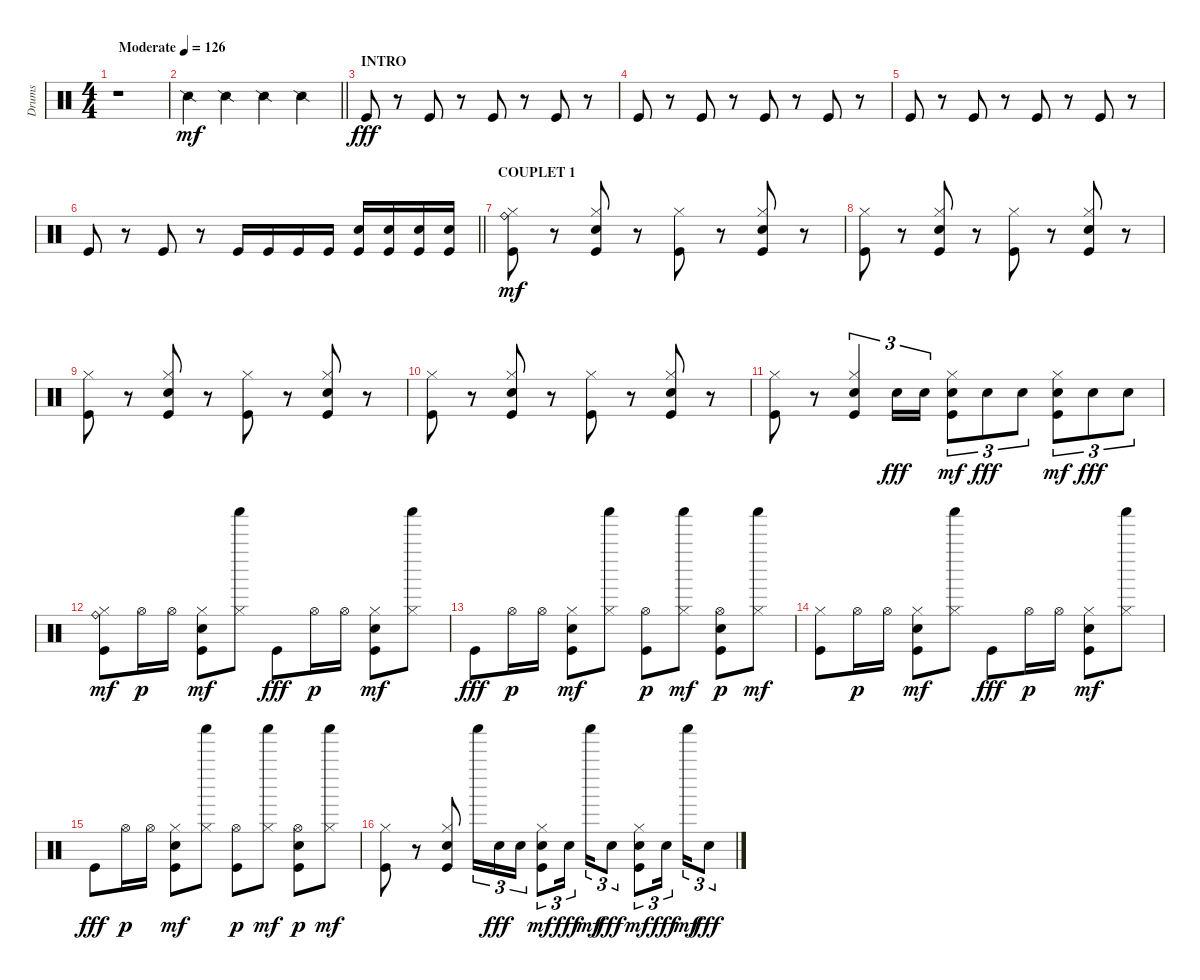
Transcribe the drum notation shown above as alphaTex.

\track ("Drums" "Drums") {instrument percussion}
\staff {score}
\articulation defaults
\ts (4 4)
\tempo (126 "Moderate")
\clef neutral
\ks c
r.1{dy mf} |
\barLineRight lightlight "Snare (side stick) 2".4 "Snare (side stick) 2".4 "Snare (side stick) 2".4 "Snare (side stick) 2".4
|
\section ("" "INTRO")
"Kick (hit)".8{dy fff} r.8 "Kick (hit)".8 r.8 "Kick (hit)".8 r.8 "Kick (hit)".8 r.8 |
"Kick (hit)".8 r.8 "Kick (hit)".8 r.8 "Kick (hit)".8 r.8 "Kick (hit)".8 r.8 |
"Kick (hit)".8 r.8 "Kick (hit)".8 r.8 "Kick (hit)".8 r.8 "Kick (hit)".8 r.8 |
\barLineRight lightlight "Kick (hit)".8
r.8 "Kick (hit)".8 r.8 "Kick (hit)".16 "Kick (hit)".16 "Kick (hit)".16 "Kick (hit)".16 ("Kick (hit)" "Snare (hit) 2").16 ("Kick (hit)" "Snare (hit) 2").16 ("Kick (hit)" "Snare (hit) 2").16 ("Kick (hit)" "Snare (hit) 2").16 |
\section ("" "COUPLET 1")
("Kick (hit)" "Hi-Hat (closed)" "Ride (bell)").8{dy mf} r.8 ("Kick (hit)" "Hand Clap (hit)" "Hi-Hat (closed)").8 r.8 ("Kick (hit)" "Hi-Hat (closed)").8 r.8 ("Kick (hit)" "Hand Clap (hit)" "Hi-Hat (closed)").8 r.8 |
("Kick (hit)" "Hi-Hat (closed)").8 r.8 ("Kick (hit)" "Hand Clap (hit)" "Hi-Hat (closed)").8 r.8 ("Kick (hit)" "Hi-Hat (closed)").8 r.8 ("Kick (hit)" "Hand Clap (hit)" "Hi-Hat (closed)").8 r.8 |
("Kick (hit)" "Hi-Hat (closed)").8 r.8 ("Kick (hit)" "Hand Clap (hit)" "Hi-Hat (closed)").8 r.8 ("Kick (hit)" "Hi-Hat (closed)").8 r.8 ("Kick (hit)" "Hand Clap (hit)" "Hi-Hat (closed)").8 r.8 |
("Kick (hit)" "Hi-Hat (closed)").8 r.8 ("Kick (hit)" "Hand Clap (hit)" "Hi-Hat (closed)").8 r.8 ("Kick (hit)" "Hi-Hat (closed)").8 r.8 ("Kick (hit)" "Hand Clap (hit)" "Hi-Hat (closed)").8 r.8 |
("Kick (hit)" "Hi-Hat (closed)").8 r.8 ("Kick (hit)" "Hand Clap (hit)" "Hi-Hat (closed)").4{tu (3 2)} "Snare (hit) 2".16{tu (3 2) dy fff} "Snare (hit) 2".16{tu (3 2)} ("Kick (hit)" "Snare (hit) 2" "Hi-Hat (closed)").8{tu (3 2) dy mf} "Snare (hit) 2".8{tu (3 2) dy fff} "Snare (hit) 2".8{tu (3 2)} ("Kick (hit)" "Snare (hit) 2" "Hi-Hat (closed)").8{tu (3 2) dy mf} "Snare (hit) 2".8{tu (3 2) dy fff} "Snare (hit) 2".8{tu (3 2)} |
("Kick (hit)" "Hi-Hat (closed)" "Ride (bell)").8{dy mf} "Hi-Hat (open)".16{dy p} "Hi-Hat (open)".16 ("Kick (hit)" "Hand Clap (hit)" "Hi-Hat (closed)").8{dy mf} ("Hi-Hat (closed)" "Shaker (hit)").8 "Kick (hit)".8{dy fff} "Hi-Hat (open)".16{dy p} "Hi-Hat (open)".16 ("Kick (hit)" "Hand Clap (hit)" "Hi-Hat (closed)").8{dy mf} ("Hi-Hat (closed)" "Shaker (hit)").8 |
"Kick (hit)".8{dy fff} "Hi-Hat (open)".16{dy p} "Hi-Hat (open)".16 ("Kick (hit)" "Hand Clap (hit)" "Hi-Hat (closed)").8{dy mf} ("Hi-Hat (closed)" "Shaker (hit)").8 ("Kick (hit)" "Hi-Hat (open)").8{dy p} ("Hi-Hat (closed)" "Shaker (hit)").8{dy mf} ("Kick (hit)" "Hand Clap (hit)" "Hi-Hat (open)").8{dy p} ("Hi-Hat (closed)" "Shaker (hit)").8{dy mf} |
("Kick (hit)" "Hi-Hat (closed)").8 "Hi-Hat (open)".16{dy p} "Hi-Hat (open)".16 ("Kick (hit)" "Hand Clap (hit)" "Hi-Hat (closed)").8{dy mf} ("Hi-Hat (closed)" "Shaker (hit)").8 "Kick (hit)".8{dy fff} "Hi-Hat (open)".16{dy p} "Hi-Hat (open)".16 ("Kick (hit)" "Hand Clap (hit)" "Hi-Hat (closed)").8{dy mf} ("Hi-Hat (closed)" "Shaker (hit)").8 |
"Kick (hit)".8{dy fff} "Hi-Hat (open)".16{dy p} "Hi-Hat (open)".16 ("Kick (hit)" "Hand Clap (hit)" "Hi-Hat (closed)").8{dy mf} ("Hi-Hat (closed)" "Shaker (hit)").8 ("Kick (hit)" "Hi-Hat (open)").8{dy p} ("Hi-Hat (closed)" "Shaker (hit)").8{dy mf} ("Kick (hit)" "Hand Clap (hit)" "Hi-Hat (open)").8{dy p} ("Hi-Hat (closed)" "Shaker (hit)").8{dy mf} |
("Kick (hit)" "Hi-Hat (closed)").8 r.8 ("Kick (hit)" "Hand Clap (hit)" "Hi-Hat (closed)").8 "Shaker (hit)".16{tu (3 2)} "Snare (hit) 2".16{tu (3 2) dy fff} "Snare (hit) 2".16{tu (3 2)} ("Kick (hit)" "Snare (hit) 2" "Hi-Hat (closed)").8{tu (3 2) dy mf} "Snare (hit) 2".16{tu (3 2) dy fff beam splitsecondary} "Shaker (hit)".16{tu (3 2) dy mf} "Snare (hit) 2".8{tu (3 2) dy fff} ("Kick (hit)" "Snare (hit) 2" "Hi-Hat (closed)").8{tu (3 2) dy mf} "Snare (hit) 2".16{tu (3 2) dy fff beam splitsecondary} "Shaker (hit)".16{tu (3 2) dy mf} "Snare (hit) 2".8{tu (3 2) dy fff}
